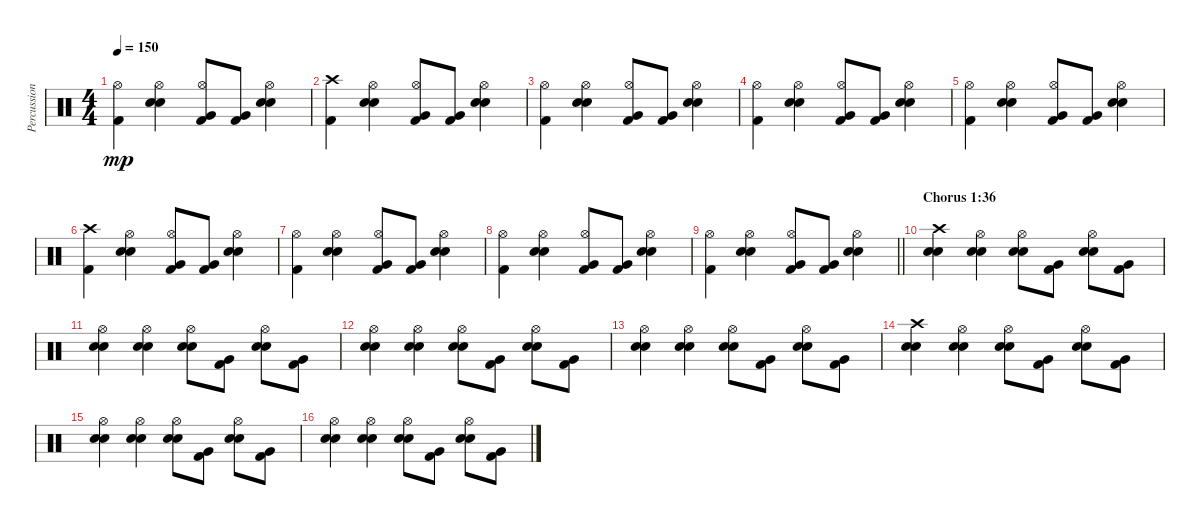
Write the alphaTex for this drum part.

\track ("Percussion" "Percussion") {instrument percussion}
\staff {score}
\articulation defaults
\ts (4 4)
\tempo 150
\clef neutral
\ks c
("Kick (hit) 2" "Hi-Hat (open)").4{dy mp} ("Electric Snare (hit)" "Snare (hit) 2" "Hi-Hat (open)").4 ("Kick (hit) 2" "Very Low Tom (hit)" "Hi-Hat (open)").8 ("Kick (hit) 2" "Very Low Tom (hit)").8 ("Electric Snare (hit)" "Snare (hit) 2" "Hi-Hat (open)").4 |
("Kick (hit) 2" "Crash high (hit)").4 ("Electric Snare (hit)" "Snare (hit) 2" "Hi-Hat (open)").4 ("Kick (hit) 2" "Very Low Tom (hit)" "Hi-Hat (open)").8 ("Kick (hit) 2" "Very Low Tom (hit)").8 ("Electric Snare (hit)" "Snare (hit) 2" "Hi-Hat (open)").4 |
("Kick (hit) 2" "Hi-Hat (open)").4 ("Electric Snare (hit)" "Snare (hit) 2" "Hi-Hat (open)").4 ("Kick (hit) 2" "Very Low Tom (hit)" "Hi-Hat (open)").8 ("Kick (hit) 2" "Very Low Tom (hit)").8 ("Electric Snare (hit)" "Snare (hit) 2" "Hi-Hat (open)").4 |
("Kick (hit) 2" "Hi-Hat (open)").4 ("Electric Snare (hit)" "Snare (hit) 2" "Hi-Hat (open)").4 ("Kick (hit) 2" "Very Low Tom (hit)" "Hi-Hat (open)").8 ("Kick (hit) 2" "Very Low Tom (hit)").8 ("Electric Snare (hit)" "Snare (hit) 2" "Hi-Hat (open)").4 |
("Kick (hit) 2" "Hi-Hat (open)").4 ("Electric Snare (hit)" "Snare (hit) 2" "Hi-Hat (open)").4 ("Kick (hit) 2" "Very Low Tom (hit)" "Hi-Hat (open)").8 ("Kick (hit) 2" "Very Low Tom (hit)").8 ("Electric Snare (hit)" "Snare (hit) 2" "Hi-Hat (open)").4 |
("Kick (hit) 2" "Crash high (hit)").4 ("Electric Snare (hit)" "Snare (hit) 2" "Hi-Hat (open)").4 ("Kick (hit) 2" "Very Low Tom (hit)" "Hi-Hat (open)").8 ("Kick (hit) 2" "Very Low Tom (hit)").8 ("Electric Snare (hit)" "Snare (hit) 2" "Hi-Hat (open)").4 |
("Kick (hit) 2" "Hi-Hat (open)").4 ("Electric Snare (hit)" "Snare (hit) 2" "Hi-Hat (open)").4 ("Kick (hit) 2" "Very Low Tom (hit)" "Hi-Hat (open)").8 ("Kick (hit) 2" "Very Low Tom (hit)").8 ("Electric Snare (hit)" "Snare (hit) 2" "Hi-Hat (open)").4 |
("Kick (hit) 2" "Hi-Hat (open)").4 ("Electric Snare (hit)" "Snare (hit) 2" "Hi-Hat (open)").4 ("Kick (hit) 2" "Very Low Tom (hit)" "Hi-Hat (open)").8 ("Kick (hit) 2" "Very Low Tom (hit)").8 ("Electric Snare (hit)" "Snare (hit) 2" "Hi-Hat (open)").4 |
\barLineRight lightlight
("Kick (hit) 2" "Hi-Hat (open)").4 ("Electric Snare (hit)" "Snare (hit) 2" "Hi-Hat (open)").4 ("Kick (hit) 2" "Very Low Tom (hit)" "Hi-Hat (open)").8 ("Kick (hit) 2" "Very Low Tom (hit)").8 ("Electric Snare (hit)" "Snare (hit) 2" "Hi-Hat (open)").4 |
\section ("" "Chorus 1:36")
("Electric Snare (hit)" "Snare (hit) 2" "Crash high (hit)").4 ("Electric Snare (hit)" "Snare (hit) 2" "Hi-Hat (open)").4 ("Electric Snare (hit)" "Snare (hit) 2" "Hi-Hat (open)").8 ("Kick (hit) 2" "Very Low Tom (hit)").8 ("Electric Snare (hit)" "Snare (hit) 2" "Hi-Hat (open)").8 ("Kick (hit) 2" "Very Low Tom (hit)").8 |
("Electric Snare (hit)" "Snare (hit) 2" "Hi-Hat (open)").4 ("Electric Snare (hit)" "Snare (hit) 2" "Hi-Hat (open)").4 ("Electric Snare (hit)" "Snare (hit) 2" "Hi-Hat (open)").8 ("Kick (hit) 2" "Very Low Tom (hit)").8 ("Electric Snare (hit)" "Snare (hit) 2" "Hi-Hat (open)").8 ("Kick (hit) 2" "Very Low Tom (hit)").8 |
("Electric Snare (hit)" "Snare (hit) 2" "Hi-Hat (open)").4 ("Electric Snare (hit)" "Snare (hit) 2" "Hi-Hat (open)").4 ("Electric Snare (hit)" "Snare (hit) 2" "Hi-Hat (open)").8 ("Kick (hit) 2" "Very Low Tom (hit)").8 ("Electric Snare (hit)" "Snare (hit) 2" "Hi-Hat (open)").8 ("Kick (hit) 2" "Very Low Tom (hit)").8 |
("Electric Snare (hit)" "Snare (hit) 2" "Hi-Hat (open)").4 ("Electric Snare (hit)" "Snare (hit) 2" "Hi-Hat (open)").4 ("Electric Snare (hit)" "Snare (hit) 2" "Hi-Hat (open)").8 ("Kick (hit) 2" "Very Low Tom (hit)").8 ("Electric Snare (hit)" "Snare (hit) 2" "Hi-Hat (open)").8 ("Kick (hit) 2" "Very Low Tom (hit)").8 |
("Electric Snare (hit)" "Snare (hit) 2" "Crash high (hit)").4 ("Electric Snare (hit)" "Snare (hit) 2" "Hi-Hat (open)").4 ("Electric Snare (hit)" "Snare (hit) 2" "Hi-Hat (open)").8 ("Kick (hit) 2" "Very Low Tom (hit)").8 ("Electric Snare (hit)" "Snare (hit) 2" "Hi-Hat (open)").8 ("Kick (hit) 2" "Very Low Tom (hit)").8 |
("Electric Snare (hit)" "Snare (hit) 2" "Hi-Hat (open)").4 ("Electric Snare (hit)" "Snare (hit) 2" "Hi-Hat (open)").4 ("Electric Snare (hit)" "Snare (hit) 2" "Hi-Hat (open)").8 ("Kick (hit) 2" "Very Low Tom (hit)").8 ("Electric Snare (hit)" "Snare (hit) 2" "Hi-Hat (open)").8 ("Kick (hit) 2" "Very Low Tom (hit)").8 |
("Electric Snare (hit)" "Snare (hit) 2" "Hi-Hat (open)").4 ("Electric Snare (hit)" "Snare (hit) 2" "Hi-Hat (open)").4 ("Electric Snare (hit)" "Snare (hit) 2" "Hi-Hat (open)").8 ("Kick (hit) 2" "Very Low Tom (hit)").8 ("Electric Snare (hit)" "Snare (hit) 2" "Hi-Hat (open)").8 ("Kick (hit) 2" "Very Low Tom (hit)").8
